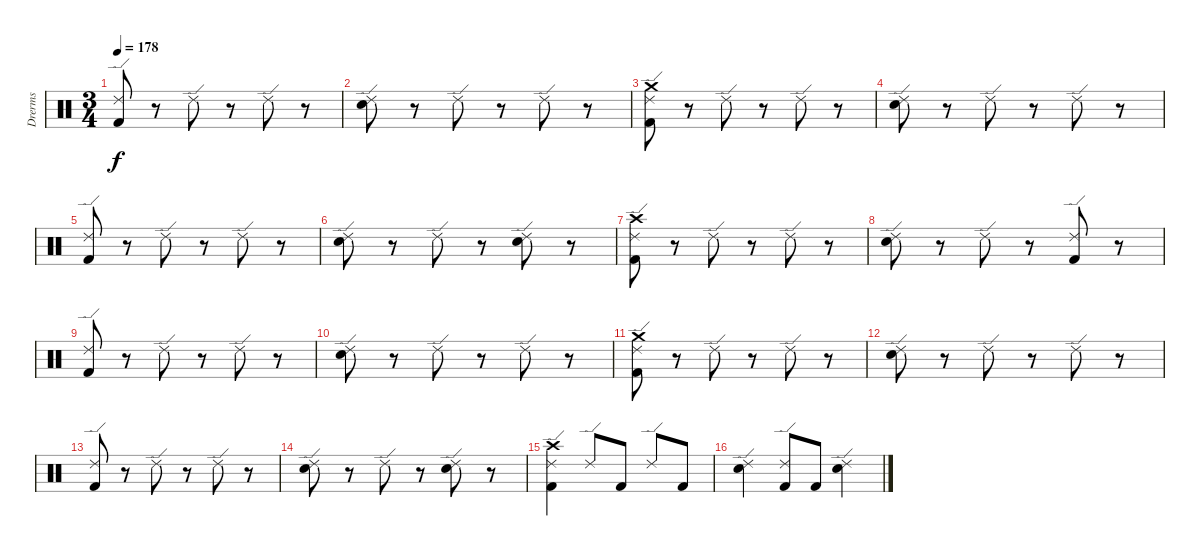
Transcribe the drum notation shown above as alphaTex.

\track ("Drerms" "Drerms") {instrument percussion}
\staff {score}
\articulation defaults
\ts (3 4)
\tempo 178
\clef neutral
\ks c
("Ride (edge) 2" "Kick (hit) 2").8{dy f} r.8 "Ride (edge) 2".8 r.8 "Ride (edge) 2".8 r.8 |
("Snare (hit) 2" "Ride (edge) 2").8 r.8 "Ride (edge) 2".8 r.8 "Ride (edge) 2".8 r.8 |
("Crash medium (hit)" "Ride (edge) 2" "Kick (hit) 2").8 r.8 "Ride (edge) 2".8 r.8 "Ride (edge) 2".8 r.8 |
("Snare (hit) 2" "Ride (edge) 2").8 r.8 "Ride (edge) 2".8 r.8 "Ride (edge) 2".8 r.8 |
("Ride (edge) 2" "Kick (hit) 2").8 r.8 "Ride (edge) 2".8 r.8 "Ride (edge) 2".8 r.8 |
("Snare (hit) 2" "Ride (edge) 2").8 r.8 "Ride (edge) 2".8 r.8 ("Snare (hit) 2" "Ride (edge) 2").8 r.8 |
("Crash high (hit)" "Ride (edge) 2" "Kick (hit) 2").8 r.8 "Ride (edge) 2".8 r.8 "Ride (edge) 2".8 r.8 |
("Snare (hit) 2" "Ride (edge) 2").8 r.8 "Ride (edge) 2".8 r.8 ("Ride (edge) 2" "Kick (hit) 2").8 r.8 |
("Ride (edge) 2" "Kick (hit) 2").8 r.8 "Ride (edge) 2".8 r.8 "Ride (edge) 2".8 r.8 |
("Snare (hit) 2" "Ride (edge) 2").8 r.8 "Ride (edge) 2".8 r.8 "Ride (edge) 2".8 r.8 |
("Crash medium (hit)" "Ride (edge) 2" "Kick (hit) 2").8 r.8 "Ride (edge) 2".8 r.8 "Ride (edge) 2".8 r.8 |
("Snare (hit) 2" "Ride (edge) 2").8 r.8 "Ride (edge) 2".8 r.8 "Ride (edge) 2".8 r.8 |
("Ride (edge) 2" "Kick (hit) 2").8 r.8 "Ride (edge) 2".8 r.8 "Ride (edge) 2".8 r.8 |
("Snare (hit) 2" "Ride (edge) 2").8 r.8 "Ride (edge) 2".8 r.8 ("Snare (hit) 2" "Ride (edge) 2").8 r.8 |
("Crash high (hit)" "Ride (edge) 2" "Kick (hit) 2").4 "Ride (edge) 2".8 "Kick (hit) 2".8 "Ride (edge) 2".8 "Kick (hit) 2".8 |
("Snare (hit) 2" "Ride (edge) 2").4 ("Ride (edge) 2" "Kick (hit) 2").8 "Kick (hit) 2".8 ("Snare (hit) 2" "Ride (edge) 2").4
